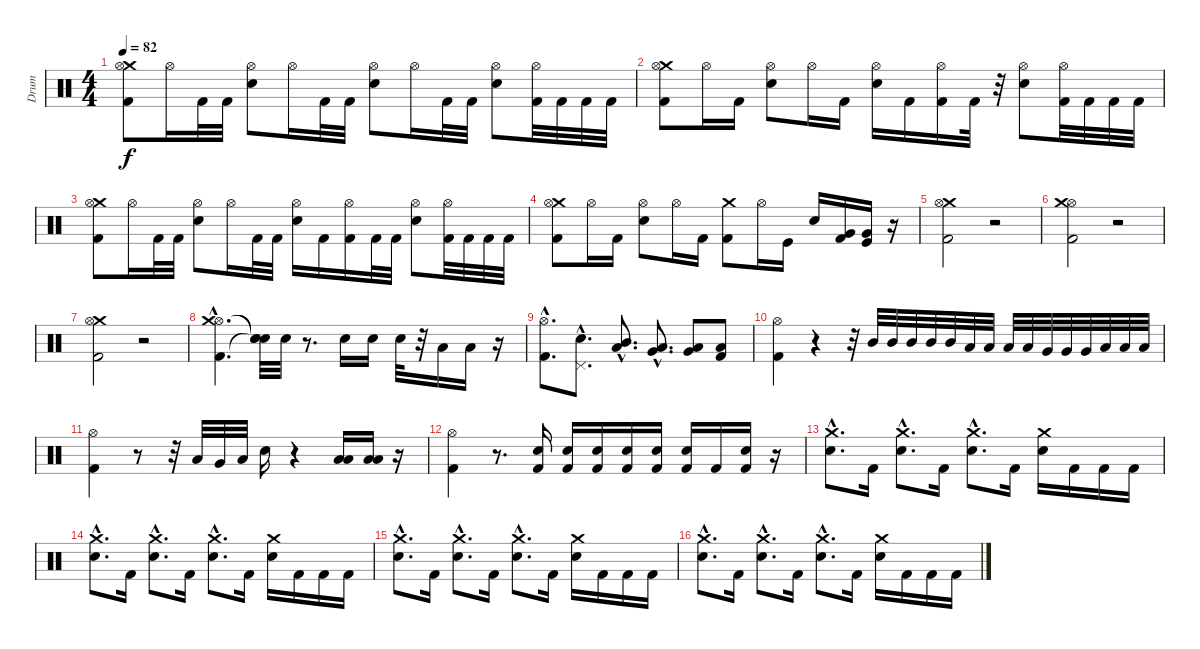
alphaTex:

\track ("Drum" "Drum") {instrument percussion}
\staff {score}
\articulation defaults
\ts (4 4)
\tempo 82
\clef neutral
\ks c
("Crash medium (hit)" "Kick (hit) 2" "Hi-Hat (open)").8{dy f} "Hi-Hat (open)".16 "Kick (hit) 2".32 "Kick (hit) 2".32 ("Electric Snare (hit)" "Hi-Hat (open)").8 "Hi-Hat (open)".16 "Kick (hit) 2".32 "Kick (hit) 2".32 ("Electric Snare (hit)" "Hi-Hat (open)").8 "Hi-Hat (open)".16 "Kick (hit) 2".32 "Kick (hit) 2".32 ("Electric Snare (hit)" "Hi-Hat (open)").8 ("Kick (hit) 2" "Hi-Hat (open)").32 "Kick (hit) 2".32 "Kick (hit) 2".32 "Kick (hit) 2".32 |
("Crash medium (hit)" "Kick (hit) 2" "Hi-Hat (open)").8 "Hi-Hat (open)".16 "Kick (hit) 2".16 ("Electric Snare (hit)" "Hi-Hat (open)").8 "Hi-Hat (open)".16 "Kick (hit) 2".16 ("Electric Snare (hit)" "Hi-Hat (open)").16 "Kick (hit) 2".16 ("Kick (hit) 2" "Hi-Hat (open)").16 "Kick (hit) 2".32 r.32 ("Electric Snare (hit)" "Hi-Hat (open)").8 ("Kick (hit) 2" "Hi-Hat (open)").32 "Kick (hit) 2".32 "Kick (hit) 2".32 "Kick (hit) 2".32 |
("Crash medium (hit)" "Kick (hit) 2" "Hi-Hat (open)").8 "Hi-Hat (open)".16 "Kick (hit) 2".32 "Kick (hit) 2".32 ("Electric Snare (hit)" "Hi-Hat (open)").8 "Hi-Hat (open)".16 "Kick (hit) 2".32 "Kick (hit) 2".32 ("Electric Snare (hit)" "Hi-Hat (open)").16 "Kick (hit) 2".16 ("Kick (hit) 2" "Hi-Hat (open)").16 "Kick (hit) 2".32 "Kick (hit) 2".32 ("Electric Snare (hit)" "Hi-Hat (open)").8 ("Kick (hit) 2" "Hi-Hat (open)").32 "Kick (hit) 2".32 "Kick (hit) 2".32 "Kick (hit) 2".32 |
("Crash medium (hit)" "Kick (hit) 2" "Hi-Hat (open)").8 "Hi-Hat (open)".16 "Kick (hit) 2".16 ("Electric Snare (hit)" "Hi-Hat (open)").8 "Hi-Hat (open)".16 "Kick (hit) 2".16 ("Crash medium (hit)" "Kick (hit) 2").8 "Hi-Hat (open)".16 "Kick (hit)".16 "Electric Snare (hit)".16 ("Very Low Tom (hit)" "Kick (hit) 2").16 ("Very Low Tom (hit)" "Kick (hit)").16 r.16 |
("Crash medium (hit)" "Hi-Hat (open)" "Kick (hit) 2").2 r.2 |
("Hi-Hat (open)" "Crash medium (hit)" "Kick (hit) 2").2 r.2 |
("Crash medium (hit)" "Hi-Hat (open)" "Kick (hit) 2").2 r.2 |
("Hi-Hat (open)"{hac} "Crash medium (hit)"{hac} "Kick (hit) 2"{hac}).4{d} ("Snare (hit)"{t} "Snare (hit)"{t} "Snare (hit)"{t}).32 "Hand Clap (hit)".32 r.8{d} "Electric Snare (hit)".16 "Electric Snare (hit)".16 "Hand Clap (hit)".32 r.32 "Low Tom (hit)".16 "Low Tom (hit)".16 r.16 |
("Hi-Hat (open)"{hac} "Kick (hit) 2"{hac}).8{d} ("Pedal Hi-Hat (hit)"{hac} "Electric Snare (hit)"{hac}).8{d} ("Low Tom (hit)"{hac} "Mid Tom (hit)"{hac}).8{d} ("Very Low Tom (hit)"{hac} "Low Tom (hit)"{hac}).8{d} ("Low Floor Tom (hit)" "Very Low Tom (hit)").8 ("Kick (hit) 2" "Low Floor Tom (hit)").8 |
("Hi-Hat (open)" "Kick (hit) 2").4 r.4 r.32 "Mid Tom (hit)".32{volume 6} "Mid Tom (hit)".32{volume 6} "Mid Tom (hit)".32{volume 6} "Mid Tom (hit)".32{volume 6} "Mid Tom (hit)".32{volume 7} "Low Tom (hit)".32{volume 7} "Low Tom (hit)".32{volume 8} "Low Tom (hit)".32{volume 8} "Low Tom (hit)".32{volume 8} "Very Low Tom (hit)".32{volume 9} "Very Low Tom (hit)".32{volume 9} "Very Low Tom (hit)".32{volume 9} "Low Floor Tom (hit)".32{volume 10} "Low Floor Tom (hit)".32{volume 10} "Low Floor Tom (hit)".32{volume 10} |
("Hi-Hat (open)" "Kick (hit) 2").4{volume 11} r.8 r.32 "Low Tom (hit)".32 "Very Low Tom (hit)".32 "Low Floor Tom (hit)".32 "Electric Snare (hit)".16 r.4 ("Low Tom (hit)" "Low Floor Tom (hit)").16 ("Low Tom (hit)" "Low Floor Tom (hit)").16 r.16 |
("Hi-Hat (open)" "Kick (hit) 2").4 r.8{d} ("Kick (hit) 2" "Electric Snare (hit)").16 ("Kick (hit) 2" "Electric Snare (hit)").16 ("Kick (hit) 2" "Electric Snare (hit)").16 ("Kick (hit) 2" "Electric Snare (hit)").16 ("Kick (hit) 2" "Electric Snare (hit)").16 ("Kick (hit) 2" "Electric Snare (hit)").16 "Kick (hit) 2".16 ("Kick (hit) 2" "Electric Snare (hit)").16 r.16 |
("Electric Snare (hit)"{hac} "Crash medium (hit)").8{d} "Kick (hit) 2".16 ("Electric Snare (hit)"{hac} "Crash medium (hit)").8{d} "Kick (hit) 2".16 ("Electric Snare (hit)"{hac} "Crash medium (hit)").8{d} "Kick (hit) 2".16 ("Electric Snare (hit)" "Crash medium (hit)").16 "Kick (hit) 2".16 "Kick (hit) 2".16 "Kick (hit) 2".16 |
("Electric Snare (hit)"{hac} "Crash medium (hit)").8{d} "Kick (hit) 2".16 ("Electric Snare (hit)"{hac} "Crash medium (hit)").8{d} "Kick (hit) 2".16 ("Electric Snare (hit)"{hac} "Crash medium (hit)").8{d} "Kick (hit) 2".16 ("Electric Snare (hit)" "Crash medium (hit)").16 "Kick (hit) 2".16 "Kick (hit) 2".16 "Kick (hit) 2".16 |
("Electric Snare (hit)"{hac} "Crash medium (hit)").8{d} "Kick (hit) 2".16 ("Electric Snare (hit)"{hac} "Crash medium (hit)").8{d} "Kick (hit) 2".16 ("Electric Snare (hit)"{hac} "Crash medium (hit)").8{d} "Kick (hit) 2".16 ("Electric Snare (hit)" "Crash medium (hit)").16 "Kick (hit) 2".16 "Kick (hit) 2".16 "Kick (hit) 2".16 |
("Electric Snare (hit)"{hac} "Crash medium (hit)").8{d} "Kick (hit) 2".16 ("Electric Snare (hit)"{hac} "Crash medium (hit)").8{d} "Kick (hit) 2".16 ("Electric Snare (hit)"{hac} "Crash medium (hit)").8{d} "Kick (hit) 2".16 ("Electric Snare (hit)" "Crash medium (hit)").16 "Kick (hit) 2".16 "Kick (hit) 2".16 "Kick (hit) 2".16
